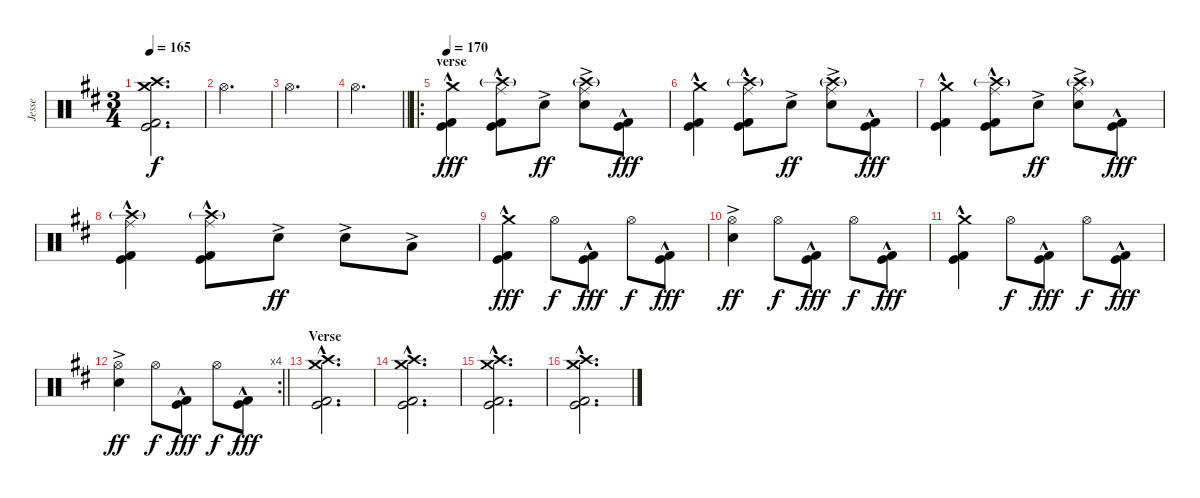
\track ("Jesse" "Jesse") {instrument percussion}
\staff {score}
\articulation defaults
\ts (3 4)
\tempo 165
\clef neutral
\ks d
("Crash medium (hit)" "Crash high (hit)" "Kick (hit)" "Kick (hit) 2").2{d dy f} |
"Hi-Hat (open)".2{d} |
"Hi-Hat (open)".2{d} |
\barLineRight lightlight "Hi-Hat (open)".2{d}
|
\ro
\section ("" "verse")
\tempo 160
\tempo 170
("Crash medium (hit)" "Kick (hit)"{hac} "Kick (hit) 2"{hac}).4{dy fff} ("Crash high (hit)"{g} "Ride (middle)" "Kick (hit)"{hac} "Kick (hit) 2"{hac}).8 "Electric Snare (hit)"{ac}.8{dy ff} ("Crash high (hit)"{g} "Ride (middle)" "Electric Snare (hit)"{ac}).8 ("Kick (hit)"{hac} "Kick (hit) 2"{hac}).8{dy fff} |
("Crash medium (hit)" "Kick (hit)"{hac} "Kick (hit) 2"{hac}).4 ("Crash high (hit)"{g} "Ride (middle)" "Kick (hit)"{hac} "Kick (hit) 2"{hac}).8 "Electric Snare (hit)"{ac}.8{dy ff} ("Crash high (hit)"{g} "Ride (middle)" "Electric Snare (hit)"{ac}).8 ("Kick (hit)"{hac} "Kick (hit) 2"{hac}).8{dy fff} |
("Crash medium (hit)" "Kick (hit)"{hac} "Kick (hit) 2"{hac}).4 ("Crash high (hit)"{g} "Ride (middle)" "Kick (hit)"{hac} "Kick (hit) 2"{hac}).8 "Electric Snare (hit)"{ac}.8{dy ff} ("Crash high (hit)"{g} "Ride (middle)" "Electric Snare (hit)"{ac}).8 ("Kick (hit)"{hac} "Kick (hit) 2"{hac}).8{dy fff} |
("Crash high (hit)"{g} "Ride (middle)" "Kick (hit)"{hac} "Kick (hit) 2"{hac}).4 ("Crash high (hit)"{g} "Ride (middle)" "Kick (hit)"{hac} "Kick (hit) 2"{hac}).8 "Electric Snare (hit)"{ac}.8{dy ff} "Electric Snare (hit)"{ac}.8 "Low Tom (hit)"{ac}.8 |
("Crash medium (hit)" "Kick (hit)"{hac} "Kick (hit) 2"{hac}).4{dy fff} "Hi-Hat (open)".8{dy f} ("Kick (hit)"{hac} "Kick (hit) 2"{hac}).8{dy fff} "Hi-Hat (open)".8{dy f} ("Kick (hit)"{hac} "Kick (hit) 2"{hac}).8{dy fff} |
("Hi-Hat (open)" "Electric Snare (hit)"{ac}).4{dy ff} "Hi-Hat (open)".8{dy f} ("Kick (hit)"{hac} "Kick (hit) 2"{hac}).8{dy fff} "Hi-Hat (open)".8{dy f} ("Kick (hit)"{hac} "Kick (hit) 2"{hac}).8{dy fff} |
("Crash medium (hit)" "Kick (hit)"{hac} "Kick (hit) 2"{hac}).4 "Hi-Hat (open)".8{dy f} ("Kick (hit)"{hac} "Kick (hit) 2"{hac}).8{dy fff} "Hi-Hat (open)".8{dy f} ("Kick (hit)"{hac} "Kick (hit) 2"{hac}).8{dy fff} |
\rc 4
\barLineRight lightlight
("Hi-Hat (open)" "Electric Snare (hit)"{ac}).4{dy ff} "Hi-Hat (open)".8{dy f} ("Kick (hit)"{hac} "Kick (hit) 2"{hac}).8{dy fff} "Hi-Hat (open)".8{dy f} ("Kick (hit)"{hac} "Kick (hit) 2"{hac}).8{dy fff} |
\section ("" "Verse")
("Crash medium (hit)" "Crash high (hit)" "Kick (hit)"{hac} "Kick (hit) 2"{hac}).2{d} |
("Crash medium (hit)" "Crash high (hit)" "Kick (hit)"{hac} "Kick (hit) 2"{hac}).2{d} |
("Crash medium (hit)" "Crash high (hit)" "Kick (hit)"{hac} "Kick (hit) 2"{hac}).2{d} |
("Crash medium (hit)" "Crash high (hit)" "Kick (hit)"{hac} "Kick (hit) 2"{hac}).2{d}
